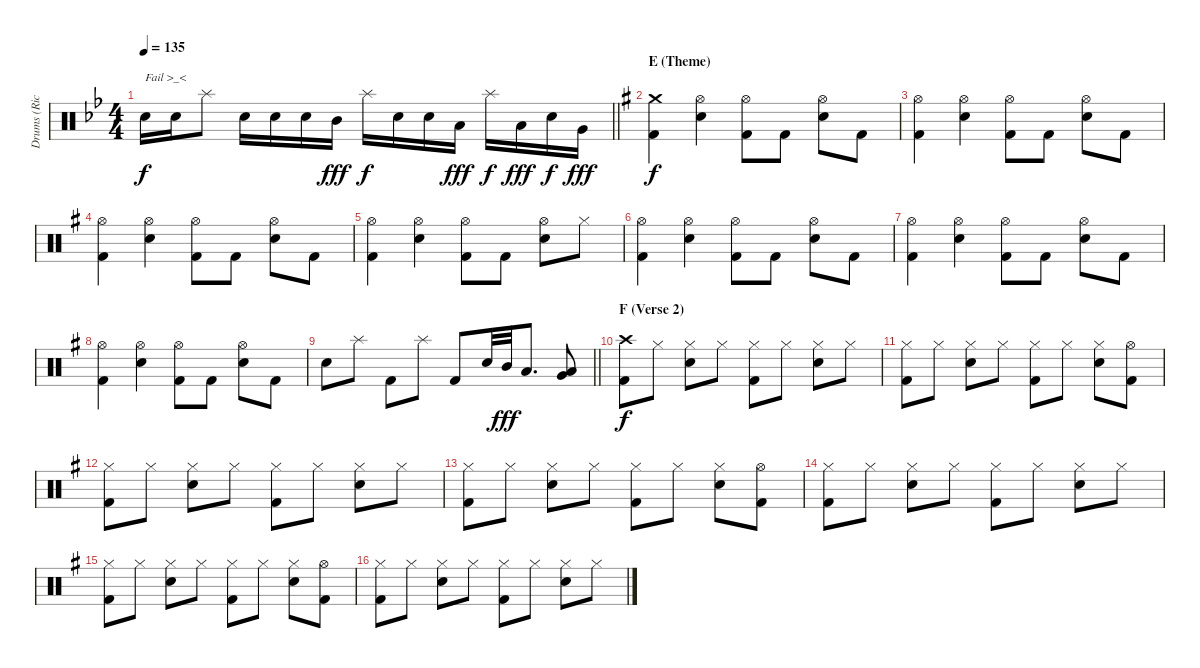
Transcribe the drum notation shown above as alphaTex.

\track ("Drums (Richard Evensand)" "Drums (Ric") {instrument percussion}
\staff {score}
\articulation defaults
\ts (4 4)
\tempo 135
\clef neutral
\barLineRight lightlight
\ks gminor "Electric Snare (hit)".16{txt "Fail >_<" dy f} "Electric Snare (hit)".16 "Splash (hit)".8 "Electric Snare (hit)".16 "Electric Snare (hit)".16 "Electric Snare (hit)".16 "Mid Tom (hit)".16{dy fff} "Splash (hit)".16{dy f} "Electric Snare (hit)".16 "Electric Snare (hit)".16 "Low Tom (hit)".16{dy fff} "Splash (hit)".16{dy f} "Low Tom (hit)".16{dy fff} "Electric Snare (hit)".16{dy f} "Very Low Tom (hit)".16{dy fff}
|
\section ("" "E (Theme)")
\ks eminor
("Crash medium (hit)" "Kick (hit) 2").4{dy f} ("Hi-Hat (open)" "Electric Snare (hit)").4 ("Hi-Hat (open)" "Kick (hit) 2").8 "Kick (hit) 2".8 ("Hi-Hat (open)" "Electric Snare (hit)").8 "Kick (hit) 2".8 |
("Hi-Hat (open)" "Kick (hit) 2").4 ("Hi-Hat (open)" "Electric Snare (hit)").4 ("Hi-Hat (open)" "Kick (hit) 2").8 "Kick (hit) 2".8 ("Hi-Hat (open)" "Electric Snare (hit)").8 "Kick (hit) 2".8 |
("Hi-Hat (open)" "Kick (hit) 2").4 ("Hi-Hat (open)" "Electric Snare (hit)").4 ("Hi-Hat (open)" "Kick (hit) 2").8 "Kick (hit) 2".8 ("Hi-Hat (open)" "Electric Snare (hit)").8 "Kick (hit) 2".8 |
("Hi-Hat (open)" "Kick (hit) 2").4 ("Hi-Hat (open)" "Electric Snare (hit)").4 ("Hi-Hat (open)" "Kick (hit) 2").8 "Kick (hit) 2".8 ("Hi-Hat (open)" "Electric Snare (hit)").8 "Hi-Hat (closed)".8 |
("Hi-Hat (open)" "Kick (hit) 2").4 ("Hi-Hat (open)" "Electric Snare (hit)").4 ("Hi-Hat (open)" "Kick (hit) 2").8 "Kick (hit) 2".8 ("Hi-Hat (open)" "Electric Snare (hit)").8 "Kick (hit) 2".8 |
("Hi-Hat (open)" "Kick (hit) 2").4 ("Hi-Hat (open)" "Electric Snare (hit)").4 ("Hi-Hat (open)" "Kick (hit) 2").8 "Kick (hit) 2".8 ("Hi-Hat (open)" "Electric Snare (hit)").8 "Kick (hit) 2".8 |
("Hi-Hat (open)" "Kick (hit) 2").4 ("Hi-Hat (open)" "Electric Snare (hit)").4 ("Hi-Hat (open)" "Kick (hit) 2").8 "Kick (hit) 2".8 ("Hi-Hat (open)" "Electric Snare (hit)").8 "Kick (hit) 2".8 |
\barLineRight lightlight "Electric Snare (hit)".8 "Splash (hit)".8 "Kick (hit) 2".8 "Splash (hit)".8 "Kick (hit) 2".8 "Electric Snare (hit)".32 "Mid Tom (hit)".32{dy fff} "Low Tom (hit)".8{d}
("Low Floor Tom (hit)" "Very Low Tom (hit)").8 |
\section ("" "F (Verse 2)")
("Crash high (hit)" "Kick (hit) 2").8{dy f} "Hi-Hat (closed)".8 ("Hi-Hat (closed)" "Electric Snare (hit)").8 "Hi-Hat (closed)".8 ("Hi-Hat (closed)" "Kick (hit) 2").8 "Hi-Hat (closed)".8 ("Hi-Hat (closed)" "Electric Snare (hit)").8 "Hi-Hat (closed)".8 |
("Hi-Hat (closed)" "Kick (hit) 2").8 "Hi-Hat (closed)".8 ("Hi-Hat (closed)" "Electric Snare (hit)").8 "Hi-Hat (closed)".8 ("Hi-Hat (closed)" "Kick (hit) 2").8 "Hi-Hat (closed)".8 ("Hi-Hat (closed)" "Electric Snare (hit)").8 ("Hi-Hat (open)" "Kick (hit) 2").8 |
("Hi-Hat (closed)" "Kick (hit) 2").8 "Hi-Hat (closed)".8 ("Hi-Hat (closed)" "Electric Snare (hit)").8 "Hi-Hat (closed)".8 ("Hi-Hat (closed)" "Kick (hit) 2").8 "Hi-Hat (closed)".8 ("Hi-Hat (closed)" "Electric Snare (hit)").8 "Hi-Hat (closed)".8 |
("Hi-Hat (closed)" "Kick (hit) 2").8 "Hi-Hat (closed)".8 ("Hi-Hat (closed)" "Electric Snare (hit)").8 "Hi-Hat (closed)".8 ("Hi-Hat (closed)" "Kick (hit) 2").8 "Hi-Hat (closed)".8 ("Hi-Hat (closed)" "Electric Snare (hit)").8 ("Hi-Hat (open)" "Kick (hit) 2").8 |
("Hi-Hat (closed)" "Kick (hit) 2").8 "Hi-Hat (closed)".8 ("Hi-Hat (closed)" "Electric Snare (hit)").8 "Hi-Hat (closed)".8 ("Hi-Hat (closed)" "Kick (hit) 2").8 "Hi-Hat (closed)".8 ("Hi-Hat (closed)" "Electric Snare (hit)").8 "Hi-Hat (closed)".8 |
("Hi-Hat (closed)" "Kick (hit) 2").8 "Hi-Hat (closed)".8 ("Hi-Hat (closed)" "Electric Snare (hit)").8 "Hi-Hat (closed)".8 ("Hi-Hat (closed)" "Kick (hit) 2").8 "Hi-Hat (closed)".8 ("Hi-Hat (closed)" "Electric Snare (hit)").8 ("Hi-Hat (open)" "Kick (hit) 2").8 |
("Hi-Hat (closed)" "Kick (hit) 2").8 "Hi-Hat (closed)".8 ("Hi-Hat (closed)" "Electric Snare (hit)").8 "Hi-Hat (closed)".8 ("Hi-Hat (closed)" "Kick (hit) 2").8 "Hi-Hat (closed)".8 ("Hi-Hat (closed)" "Electric Snare (hit)").8 "Hi-Hat (closed)".8
